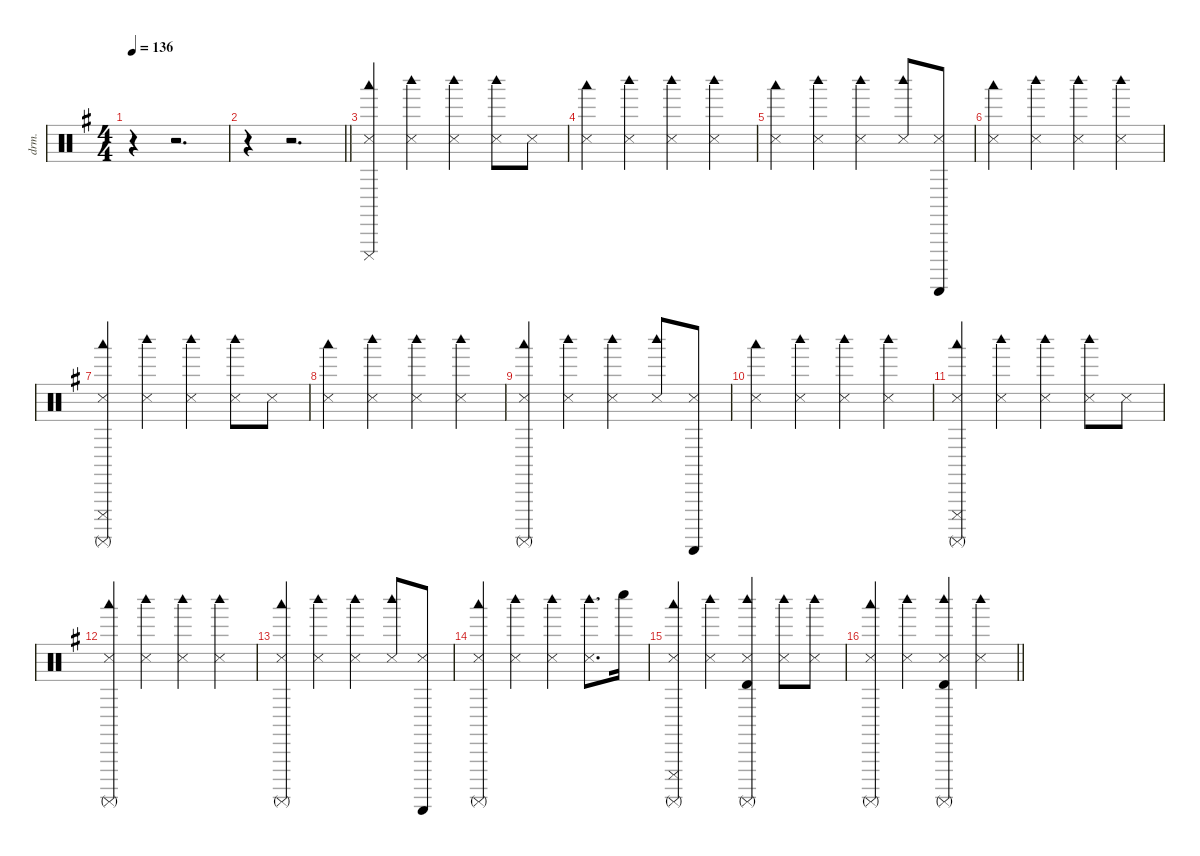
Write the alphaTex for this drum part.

\defaultSystemsLayout 4
\hideDynamics
\bracketExtendMode nobrackets
\otherSystemsTrackNameOrientation horizontal
\track ("Batterie" "drm.") {instrument percussion}
\staff {score}
\articulation defaults
\ts (4 4)
\beaming (8 2 2 2 2)
\tempo 136
\clef neutral
\ks g
r.4{dy f beam Down} r.2{d beam Down} |
\barLineRight lightlight
r.4{beam Down} r.2{d beam Down} |
("Cuica (mute)"{acc forcenatural} "Snare (side stick) 3"{acc forcenatural} "Woodblock low (hit)"{acc forcenatural}).4{beam Up} ("Snare (side stick) 3"{acc forcenatural} "Woodblock high (hit)"{acc forcenatural}).4{beam Down} ("Snare (side stick) 3"{acc forcenatural} "Woodblock high (hit)"{acc forcenatural}).4{beam Down} ("Snare (side stick) 3"{acc forcenatural} "Woodblock high (hit)"{acc forcenatural}).8{beam Down} "Snare (side stick) 3"{acc forcenatural}.8{beam Down} |
("Snare (side stick) 3"{acc forcenatural} "Woodblock low (hit)"{acc forcenatural}).4{beam Down} ("Snare (side stick) 3"{acc forcenatural} "Woodblock high (hit)"{acc forcenatural}).4{beam Down} ("Snare (side stick) 3"{acc forcenatural} "Woodblock high (hit)"{acc forcenatural}).4{beam Down} ("Snare (side stick) 3"{acc forcenatural} "Woodblock high (hit)"{acc forcenatural}).4{beam Down} |
("Snare (side stick) 3"{acc forcenatural} "Woodblock low (hit)"{acc forcenatural}).4{beam Down} ("Snare (side stick) 3"{acc forcenatural} "Woodblock high (hit)"{acc forcenatural}).4{beam Down} ("Snare (side stick) 3"{acc forcenatural} "Woodblock high (hit)"{acc forcenatural}).4{beam Down} ("Snare (side stick) 3"{acc forcenatural} "Woodblock high (hit)"{acc forcenatural}).8{beam Up} ("Snare (side stick) 3"{acc forcenatural} "Guiro (scrap-return)"{acc forcenatural}).8{beam Up} |
("Snare (side stick) 3"{acc forcenatural} "Woodblock low (hit)"{acc forcenatural}).4{beam Down} ("Snare (side stick) 3"{acc forcenatural} "Woodblock high (hit)"{acc forcenatural}).4{beam Down} ("Snare (side stick) 3"{acc forcenatural} "Woodblock high (hit)"{acc forcenatural}).4{beam Down} ("Snare (side stick) 3"{acc forcenatural} "Woodblock high (hit)"{acc forcenatural}).4{beam Down} |
("Cuica (mute)"{acc forcenatural} "Snare (side stick) 3"{acc forcenatural} "Woodblock low (hit)"{acc forcenatural} "Surdo (mute)"{acc forcenatural}).4{beam Up} ("Snare (side stick) 3"{acc forcenatural} "Woodblock high (hit)"{acc forcenatural}).4{beam Down} ("Snare (side stick) 3"{acc forcenatural} "Woodblock high (hit)"{acc forcenatural}).4{beam Down} ("Snare (side stick) 3"{acc forcenatural} "Woodblock high (hit)"{acc forcenatural}).8{beam Down} "Snare (side stick) 3"{acc forcenatural}.8{beam Down} |
("Snare (side stick) 3"{acc forcenatural} "Woodblock low (hit)"{acc forcenatural}).4{beam Down} ("Snare (side stick) 3"{acc forcenatural} "Woodblock high (hit)"{acc forcenatural}).4{beam Down} ("Snare (side stick) 3"{acc forcenatural} "Woodblock high (hit)"{acc forcenatural}).4{beam Down} ("Snare (side stick) 3"{acc forcenatural} "Woodblock high (hit)"{acc forcenatural}).4{beam Down} |
("Snare (side stick) 3"{acc forcenatural} "Woodblock low (hit)"{acc forcenatural} "Surdo (mute)"{acc forcenatural}).4{beam Up} ("Snare (side stick) 3"{acc forcenatural} "Woodblock high (hit)"{acc forcenatural}).4{beam Down} ("Snare (side stick) 3"{acc forcenatural} "Woodblock high (hit)"{acc forcenatural}).4{beam Down} ("Snare (side stick) 3"{acc forcenatural} "Woodblock high (hit)"{acc forcenatural}).8{beam Up} ("Snare (side stick) 3"{acc forcenatural} "Guiro (scrap-return)"{acc forcenatural}).8{beam Up} |
("Snare (side stick) 3"{acc forcenatural} "Woodblock low (hit)"{acc forcenatural}).4{beam Down} ("Snare (side stick) 3"{acc forcenatural} "Woodblock high (hit)"{acc forcenatural}).4{beam Down} ("Snare (side stick) 3"{acc forcenatural} "Woodblock high (hit)"{acc forcenatural}).4{beam Down} ("Snare (side stick) 3"{acc forcenatural} "Woodblock high (hit)"{acc forcenatural}).4{beam Down} |
("Cuica (mute)"{acc forcenatural} "Snare (side stick) 3"{acc forcenatural} "Woodblock low (hit)"{acc forcenatural} "Surdo (mute)"{acc forcenatural}).4{beam Up} ("Snare (side stick) 3"{acc forcenatural} "Woodblock high (hit)"{acc forcenatural}).4{beam Down} ("Snare (side stick) 3"{acc forcenatural} "Woodblock high (hit)"{acc forcenatural}).4{beam Down} ("Snare (side stick) 3"{acc forcenatural} "Woodblock high (hit)"{acc forcenatural}).8{beam Down} "Snare (side stick) 3"{acc forcenatural}.8{beam Down} |
("Snare (side stick) 3"{acc forcenatural} "Woodblock low (hit)"{acc forcenatural} "Surdo (mute)"{acc forcenatural}).4{beam Up} ("Snare (side stick) 3"{acc forcenatural} "Woodblock high (hit)"{acc forcenatural}).4{beam Down} ("Snare (side stick) 3"{acc forcenatural} "Woodblock high (hit)"{acc forcenatural}).4{beam Down} ("Snare (side stick) 3"{acc forcenatural} "Woodblock high (hit)"{acc forcenatural}).4{beam Down} |
("Snare (side stick) 3"{acc forcenatural} "Woodblock low (hit)"{acc forcenatural} "Surdo (mute)"{acc forcenatural}).4{beam Up} ("Snare (side stick) 3"{acc forcenatural} "Woodblock high (hit)"{acc forcenatural}).4{beam Down} ("Snare (side stick) 3"{acc forcenatural} "Woodblock high (hit)"{acc forcenatural}).4{beam Down} ("Snare (side stick) 3"{acc forcenatural} "Woodblock high (hit)"{acc forcenatural}).8{beam Up} ("Snare (side stick) 3"{acc forcenatural} "Guiro (scrap-return)"{acc forcenatural}).8{beam Up} |
("Snare (side stick) 3"{acc forcenatural} "Woodblock low (hit)"{acc forcenatural} "Surdo (mute)"{acc forcenatural}).4{beam Up} ("Snare (side stick) 3"{acc forcenatural} "Woodblock high (hit)"{acc forcenatural}).4{beam Down} ("Snare (side stick) 3"{acc forcenatural} "Woodblock high (hit)"{acc forcenatural}).4{beam Down} ("Snare (side stick) 3"{acc forcenatural} "Woodblock high (hit)"{acc forcenatural}).8{d beam Down} "Whistle low (hit)"{acc forcenatural}.16{beam Down} |
("Cuica (mute)"{acc forcenatural} "Snare (side stick) 3"{acc forcenatural} "Woodblock low (hit)"{acc forcenatural} "Surdo (mute)"{acc forcenatural}).4{beam Up} ("Snare (side stick) 3"{acc forcenatural} "Woodblock high (hit)"{acc forcenatural}).4{beam Down} ("Snare (side stick) 3"{acc forcenatural} "Woodblock high (hit)"{acc forcenatural} "Timbale high (hit)"{acc forcenatural} "Surdo (mute)"{acc forcenatural}).4{beam Up} ("Snare (side stick) 3"{acc forcenatural} "Woodblock high (hit)"{acc forcenatural}).8{beam Down} ("Snare (side stick) 3"{acc forcenatural} "Woodblock high (hit)"{acc forcenatural}).8{beam Down} |
\barLineRight lightlight
("Snare (side stick) 3"{acc forcenatural} "Woodblock low (hit)"{acc forcenatural} "Surdo (mute)"{acc forcenatural}).4{beam Up} ("Snare (side stick) 3"{acc forcenatural} "Woodblock high (hit)"{acc forcenatural}).4{beam Down} ("Snare (side stick) 3"{acc forcenatural} "Woodblock high (hit)"{acc forcenatural} "Timbale high (hit)"{acc forcenatural} "Surdo (mute)"{acc forcenatural}).4{beam Up} ("Snare (side stick) 3"{acc forcenatural} "Woodblock high (hit)"{acc forcenatural}).4{beam Down}
